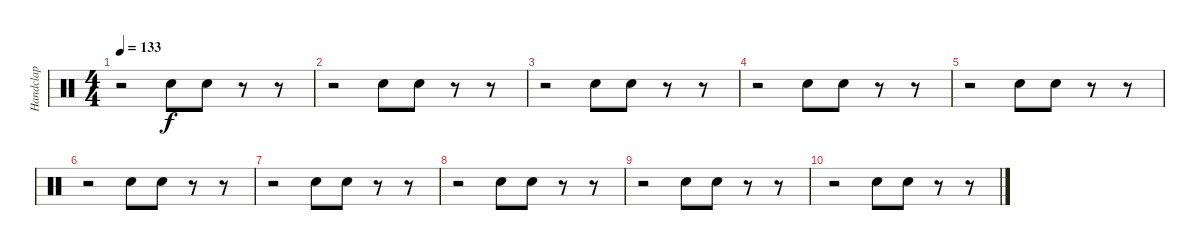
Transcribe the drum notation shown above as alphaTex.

\track ("Handclap" "Handclap") {instrument percussion}
\staff {score}
\articulation defaults
\ts (4 4)
\tempo 133
\clef neutral
\ks c
r.2{dy f} "Hand Clap (hit)".8 "Hand Clap (hit)".8 r.8 r.8 |
r.2 "Hand Clap (hit)".8 "Hand Clap (hit)".8 r.8 r.8 |
r.2 "Hand Clap (hit)".8 "Hand Clap (hit)".8 r.8 r.8 |
r.2 "Hand Clap (hit)".8 "Hand Clap (hit)".8 r.8 r.8 |
r.2 "Hand Clap (hit)".8 "Hand Clap (hit)".8 r.8 r.8 |
r.2 "Hand Clap (hit)".8 "Hand Clap (hit)".8 r.8 r.8 |
r.2 "Hand Clap (hit)".8 "Hand Clap (hit)".8 r.8 r.8 |
r.2 "Hand Clap (hit)".8 "Hand Clap (hit)".8 r.8 r.8 |
r.2 "Hand Clap (hit)".8 "Hand Clap (hit)".8 r.8 r.8 |
r.2 "Hand Clap (hit)".8 "Hand Clap (hit)".8 r.8 r.8
